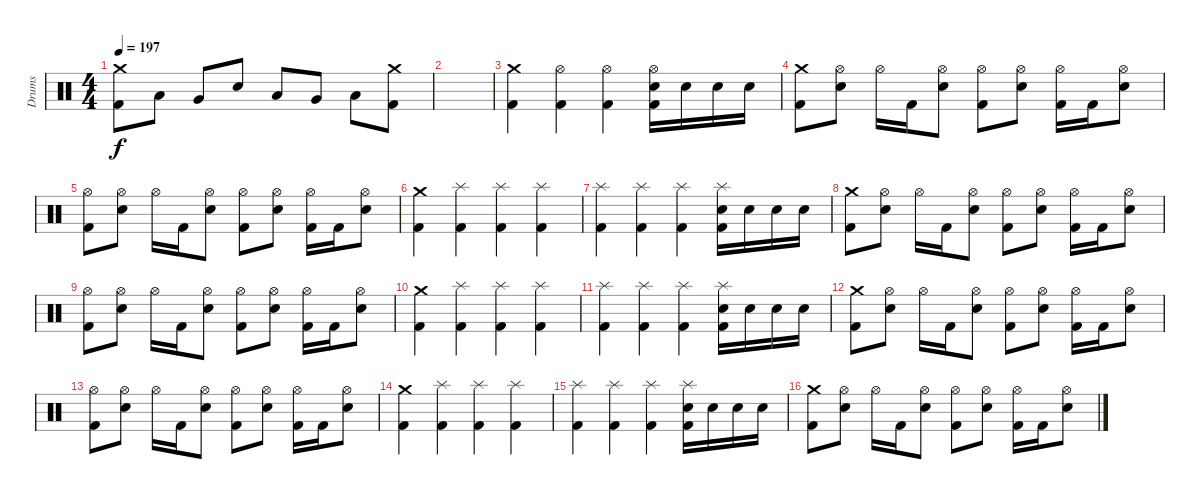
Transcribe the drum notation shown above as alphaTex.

\track ("Drums" "Drums") {instrument percussion}
\staff {score}
\articulation defaults
\ts (4 4)
\tempo 197
\clef neutral
\ks c
("Crash medium (hit)" "Kick (hit) 2").8{dy f} "Low Tom (hit)".8 "Very Low Tom (hit)".8 "Snare (hit) 2".8 "Low Tom (hit)".8 "Very Low Tom (hit)".8 "Low Floor Tom (hit)".8 ("Crash medium (hit)" "Kick (hit) 2").8 |
|
("Crash medium (hit)" "Kick (hit) 2").4 ("Hi-Hat (open)" "Kick (hit) 2").4 ("Hi-Hat (open)" "Kick (hit) 2").4 ("Hi-Hat (open)" "Snare (hit) 2" "Kick (hit) 2").16 "Snare (hit) 2".16 "Snare (hit) 2".16 "Snare (hit) 2".16 |
("Crash medium (hit)" "Kick (hit) 2").8 ("Hi-Hat (open)" "Snare (hit) 2").8 "Hi-Hat (open)".16 "Kick (hit) 2".16 ("Hi-Hat (open)" "Snare (hit) 2").8 ("Hi-Hat (open)" "Kick (hit) 2").8 ("Hi-Hat (open)" "Snare (hit) 2").8 ("Hi-Hat (open)" "Kick (hit) 2").16 "Kick (hit) 2".16 ("Hi-Hat (open)" "Snare (hit) 2").8 |
("Hi-Hat (open)" "Kick (hit) 2").8 ("Hi-Hat (open)" "Snare (hit) 2").8 "Hi-Hat (open)".16 "Kick (hit) 2".16 ("Hi-Hat (open)" "Snare (hit) 2").8 ("Hi-Hat (open)" "Kick (hit) 2").8 ("Hi-Hat (open)" "Snare (hit) 2").8 ("Hi-Hat (open)" "Kick (hit) 2").16 "Kick (hit) 2".16 ("Hi-Hat (open)" "Snare (hit) 2").8 |
("Crash medium (hit)" "Kick (hit) 2").4 ("Splash (hit)" "Kick (hit) 2").4 ("Splash (hit)" "Kick (hit) 2").4 ("Splash (hit)" "Kick (hit) 2").4 |
("Splash (hit)" "Kick (hit) 2").4 ("Splash (hit)" "Kick (hit) 2").4 ("Splash (hit)" "Kick (hit) 2").4 ("Splash (hit)" "Snare (hit) 2" "Kick (hit) 2").16 "Snare (hit) 2".16 "Snare (hit) 2".16 "Snare (hit) 2".16 |
("Crash medium (hit)" "Kick (hit) 2").8 ("Hi-Hat (open)" "Snare (hit) 2").8 "Hi-Hat (open)".16 "Kick (hit) 2".16 ("Hi-Hat (open)" "Snare (hit) 2").8 ("Hi-Hat (open)" "Kick (hit) 2").8 ("Hi-Hat (open)" "Snare (hit) 2").8 ("Hi-Hat (open)" "Kick (hit) 2").16 "Kick (hit) 2".16 ("Hi-Hat (open)" "Snare (hit) 2").8 |
("Hi-Hat (open)" "Kick (hit) 2").8 ("Hi-Hat (open)" "Snare (hit) 2").8 "Hi-Hat (open)".16 "Kick (hit) 2".16 ("Hi-Hat (open)" "Snare (hit) 2").8 ("Hi-Hat (open)" "Kick (hit) 2").8 ("Hi-Hat (open)" "Snare (hit) 2").8 ("Hi-Hat (open)" "Kick (hit) 2").16 "Kick (hit) 2".16 ("Hi-Hat (open)" "Snare (hit) 2").8 |
("Crash medium (hit)" "Kick (hit) 2").4 ("Splash (hit)" "Kick (hit) 2").4 ("Splash (hit)" "Kick (hit) 2").4 ("Splash (hit)" "Kick (hit) 2").4 |
("Splash (hit)" "Kick (hit) 2").4 ("Splash (hit)" "Kick (hit) 2").4 ("Splash (hit)" "Kick (hit) 2").4 ("Splash (hit)" "Snare (hit) 2" "Kick (hit) 2").16 "Snare (hit) 2".16 "Snare (hit) 2".16 "Snare (hit) 2".16 |
("Crash medium (hit)" "Kick (hit) 2").8 ("Hi-Hat (open)" "Snare (hit) 2").8 "Hi-Hat (open)".16 "Kick (hit) 2".16 ("Hi-Hat (open)" "Snare (hit) 2").8 ("Hi-Hat (open)" "Kick (hit) 2").8 ("Hi-Hat (open)" "Snare (hit) 2").8 ("Hi-Hat (open)" "Kick (hit) 2").16 "Kick (hit) 2".16 ("Hi-Hat (open)" "Snare (hit) 2").8 |
("Hi-Hat (open)" "Kick (hit) 2").8 ("Hi-Hat (open)" "Snare (hit) 2").8 "Hi-Hat (open)".16 "Kick (hit) 2".16 ("Hi-Hat (open)" "Snare (hit) 2").8 ("Hi-Hat (open)" "Kick (hit) 2").8 ("Hi-Hat (open)" "Snare (hit) 2").8 ("Hi-Hat (open)" "Kick (hit) 2").16 "Kick (hit) 2".16 ("Hi-Hat (open)" "Snare (hit) 2").8 |
("Crash medium (hit)" "Kick (hit) 2").4 ("Splash (hit)" "Kick (hit) 2").4 ("Splash (hit)" "Kick (hit) 2").4 ("Splash (hit)" "Kick (hit) 2").4 |
("Splash (hit)" "Kick (hit) 2").4 ("Splash (hit)" "Kick (hit) 2").4 ("Splash (hit)" "Kick (hit) 2").4 ("Splash (hit)" "Snare (hit) 2" "Kick (hit) 2").16 "Snare (hit) 2".16 "Snare (hit) 2".16 "Snare (hit) 2".16 |
("Crash medium (hit)" "Kick (hit) 2").8 ("Hi-Hat (open)" "Snare (hit) 2").8 "Hi-Hat (open)".16 "Kick (hit) 2".16 ("Hi-Hat (open)" "Snare (hit) 2").8 ("Hi-Hat (open)" "Kick (hit) 2").8 ("Hi-Hat (open)" "Snare (hit) 2").8 ("Hi-Hat (open)" "Kick (hit) 2").16 "Kick (hit) 2".16 ("Hi-Hat (open)" "Snare (hit) 2").8
